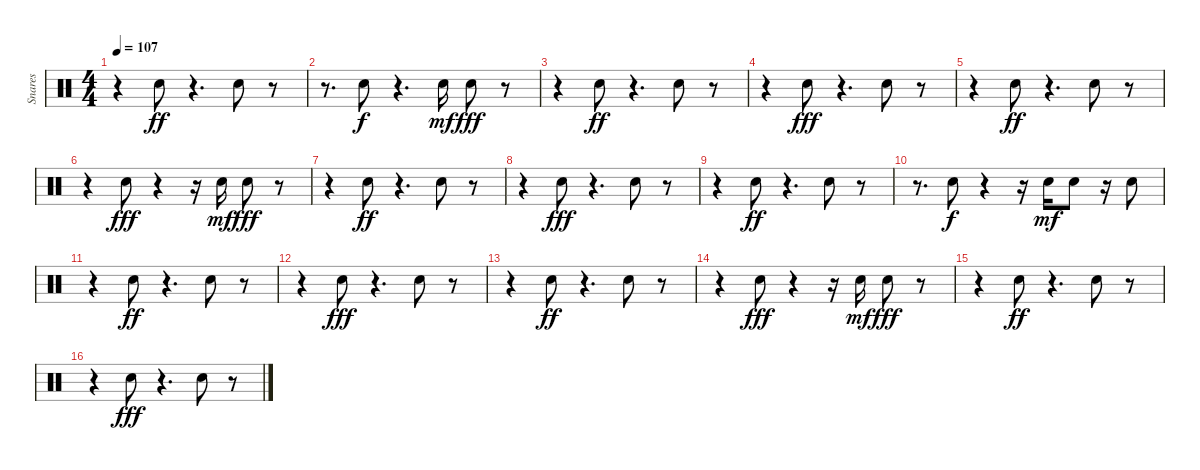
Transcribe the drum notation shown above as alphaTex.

\track ("Snares" "Snares") {instrument percussion}
\staff {score}
\articulation defaults
\ts (4 4)
\tempo 107
\clef neutral
\ks c
r.4{dy fff} "Snare (hit) 2".8{dy ff} r.4{d} "Snare (hit) 2".8 r.8 |
r.8{d} "Snare (hit) 2".8{dy f} r.4{d} "Snare (hit) 2".16{dy mf} "Snare (hit) 2".8{dy fff} r.8 |
r.4 "Snare (hit) 2".8{dy ff} r.4{d} "Snare (hit) 2".8 r.8 |
r.4 "Snare (hit) 2".8{dy fff} r.4{d} "Snare (hit) 2".8 r.8 |
r.4 "Snare (hit) 2".8{dy ff} r.4{d} "Snare (hit) 2".8 r.8 |
r.4 "Snare (hit) 2".8{dy fff} r.4 r.16 "Snare (hit) 2".16{dy mf} "Snare (hit) 2".8{dy fff} r.8 |
r.4 "Snare (hit) 2".8{dy ff} r.4{d} "Snare (hit) 2".8 r.8 |
r.4 "Snare (hit) 2".8{dy fff} r.4{d} "Snare (hit) 2".8 r.8 |
r.4 "Snare (hit) 2".8{dy ff} r.4{d} "Snare (hit) 2".8 r.8 |
r.8{d} "Snare (hit) 2".8{dy f} r.4 r.16 "Snare (hit) 2".16{dy mf} "Snare (hit) 2".8 r.16 "Snare (hit) 2".8 |
r.4 "Snare (hit) 2".8{dy ff} r.4{d} "Snare (hit) 2".8 r.8 |
r.4 "Snare (hit) 2".8{dy fff} r.4{d} "Snare (hit) 2".8 r.8 |
r.4 "Snare (hit) 2".8{dy ff} r.4{d} "Snare (hit) 2".8 r.8 |
r.4 "Snare (hit) 2".8{dy fff} r.4 r.16 "Snare (hit) 2".16{dy mf} "Snare (hit) 2".8{dy fff} r.8 |
r.4 "Snare (hit) 2".8{dy ff} r.4{d} "Snare (hit) 2".8 r.8 |
r.4 "Snare (hit) 2".8{dy fff} r.4{d} "Snare (hit) 2".8 r.8
